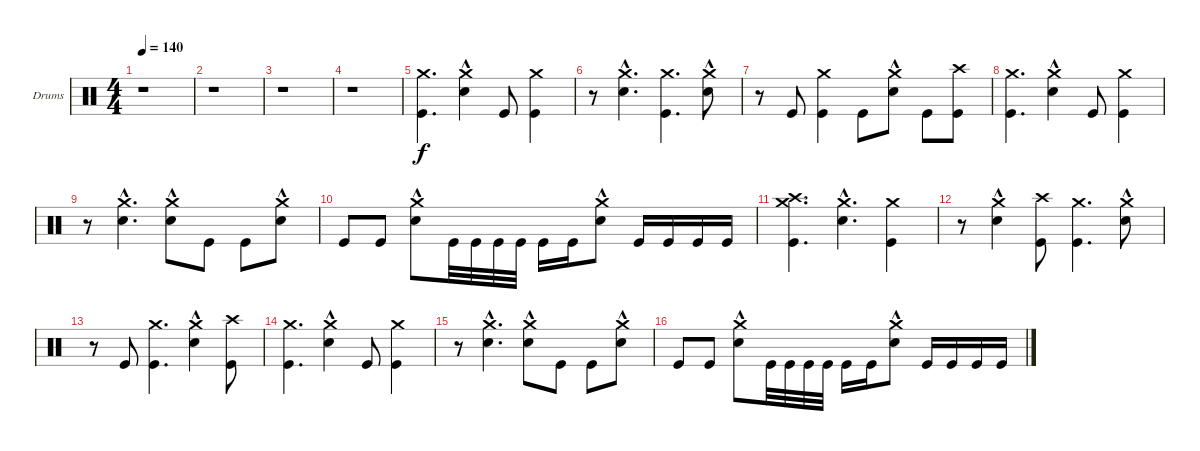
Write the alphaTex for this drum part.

\bracketExtendMode groupsimilarinstruments
\firstSystemTrackNameOrientation horizontal
\otherSystemsTrackNameOrientation horizontal
\track ("Drumkit (Christoph)" "Drums") {instrument percussion}
\staff {score}
\articulation defaults
\ts (4 4)
\tempo 140
\clef neutral
\ks c
r.1{dy fff} |
r.1 |
r.1 |
r.1 |
("Crash medium (hit)" "Kick (hit)").4{d dy f} ("Crash medium (hit)" "Snare (hit) 2"{hac}).4 "Kick (hit)".8 ("Crash medium (hit)" "Kick (hit)").4 |
r.8 ("Crash medium (hit)" "Snare (hit) 2"{hac}).4{d} ("Crash medium (hit)" "Kick (hit)").4{d} ("Crash medium (hit)" "Snare (hit) 2"{hac}).8 |
r.8 "Kick (hit)".8 ("Crash medium (hit)" "Kick (hit)").4 "Kick (hit)".8 ("Crash medium (hit)" "Snare (hit) 2"{hac}).8 "Kick (hit)".8 ("Crash high (hit)" "Kick (hit)").8 |
("Crash medium (hit)" "Kick (hit)").4{d} ("Crash medium (hit)" "Snare (hit) 2"{hac}).4 "Kick (hit)".8 ("Crash medium (hit)" "Kick (hit)").4 |
r.8 ("Crash medium (hit)" "Snare (hit) 2"{hac}).4{d} ("Crash medium (hit)" "Snare (hit) 2"{hac}).8 "Kick (hit)".8 "Kick (hit)".8 ("Crash medium (hit)" "Snare (hit) 2"{hac}).8 |
"Kick (hit)".8 "Kick (hit)".8 ("Crash medium (hit)" "Snare (hit) 2"{hac}).8 "Kick (hit)".32 "Kick (hit)".32 "Kick (hit)".32 "Kick (hit)".32 "Kick (hit)".16 "Kick (hit)".16 ("Crash medium (hit)" "Snare (hit) 2"{hac}).8 "Kick (hit)".16 "Kick (hit)".16 "Kick (hit)".16 "Kick (hit)".16 |
("Crash medium (hit)" "Kick (hit)" "Crash high (hit)").4{d} ("Crash medium (hit)" "Snare (hit) 2"{hac}).4{d} ("Crash medium (hit)" "Kick (hit)").4 |
r.8 ("Crash medium (hit)" "Snare (hit) 2"{hac}).4 ("Crash high (hit)" "Kick (hit)").8 ("Crash medium (hit)" "Kick (hit)").4{d} ("Crash medium (hit)" "Snare (hit) 2"{hac}).8 |
r.8 "Kick (hit)".8 ("Crash medium (hit)" "Kick (hit)").4{d} ("Crash medium (hit)" "Snare (hit) 2"{hac}).4 ("Crash high (hit)" "Kick (hit)").8 |
("Crash medium (hit)" "Kick (hit)").4{d} ("Crash medium (hit)" "Snare (hit) 2"{hac}).4 "Kick (hit)".8 ("Crash medium (hit)" "Kick (hit)").4 |
r.8 ("Crash medium (hit)" "Snare (hit) 2"{hac}).4{d} ("Crash medium (hit)" "Snare (hit) 2"{hac}).8 "Kick (hit)".8 "Kick (hit)".8 ("Crash medium (hit)" "Snare (hit) 2"{hac}).8 |
"Kick (hit)".8 "Kick (hit)".8 ("Crash medium (hit)" "Snare (hit) 2"{hac}).8 "Kick (hit)".32 "Kick (hit)".32 "Kick (hit)".32 "Kick (hit)".32 "Kick (hit)".16 "Kick (hit)".16 ("Crash medium (hit)" "Snare (hit) 2"{hac}).8 "Kick (hit)".16 "Kick (hit)".16 "Kick (hit)".16 "Kick (hit)".16
